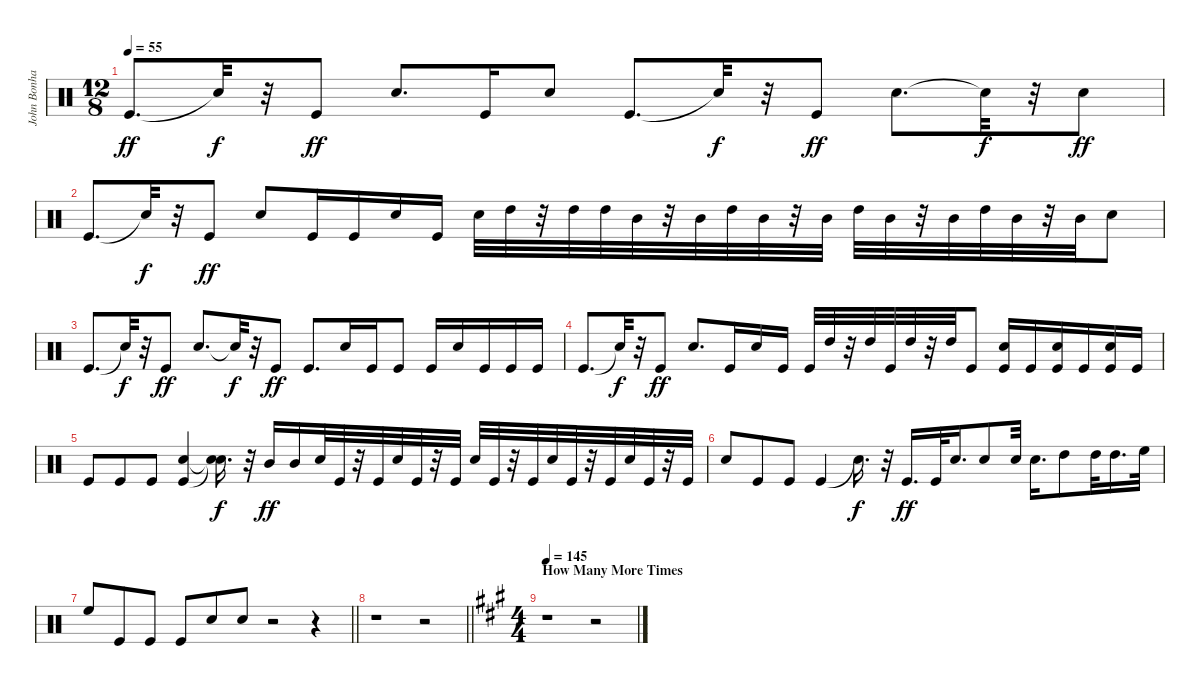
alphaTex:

\track ("John Bonham - Drums" "John Bonha") {instrument percussion}
\staff {score}
\articulation defaults
\ts (12 8)
\tempo 55
\clef neutral
\ks c "Kick (hit)".8{d dy ff} "Snare (hit)"{t}.32{dy f}
r.32 "Kick (hit)".8{dy ff} "Snare (hit) 2".8{d} "Kick (hit)".16 "Snare (hit) 2".8 "Kick (hit)".8{d} "Snare (hit)"{t}.32{dy f} r.32 "Kick (hit)".8{dy ff} "Snare (hit) 2".8{d} "Snare (hit)"{t}.32{dy f} r.32 "Snare (hit) 2".8{dy ff} |
"Kick (hit)".8{d} "Snare (hit)"{t}.32{dy f} r.32 "Kick (hit)".8{dy ff} "Snare (hit) 2".8 "Kick (hit)".16 "Kick (hit)".16 "Snare (hit) 2".16 "Kick (hit)".16 "Snare (hit) 2".32 "High Tom (hit)".32 r.32 "High Tom (hit)".32 "High Tom (hit)".32 "Mid Tom (hit)".32 r.32 "Mid Tom (hit)".32 "High Tom (hit)".32 "Mid Tom (hit)".32 r.32 "Mid Tom (hit)".32 "High Tom (hit)".32 "Mid Tom (hit)".32 r.32 "Mid Tom (hit)".32 "High Tom (hit)".32 "Mid Tom (hit)".32 r.32 "Mid Tom (hit)".32 "Snare (hit) 2".8 |
"Kick (hit)".8{d} "Snare (hit)"{t}.32{dy f} r.32 "Kick (hit)".8{dy ff} "Snare (hit) 2".8{d} "Snare (hit)"{t}.32{dy f} r.32 "Kick (hit)".8{dy ff} "Kick (hit)".8{d} "Snare (hit) 2".16 "Kick (hit)".16 "Kick (hit)".8 "Kick (hit)".16 "Snare (hit) 2".16 "Kick (hit)".16 "Kick (hit)".16 "Kick (hit)".16 |
"Kick (hit)".8{d} "Snare (hit)"{t}.32{dy f} r.32 "Kick (hit)".8{dy ff} "Snare (hit) 2".8{d} "Kick (hit)".16 "Snare (hit) 2".16 "Kick (hit)".16 "Kick (hit)".32 "High Tom (hit)".32 r.32 "High Tom (hit)".32 "Kick (hit)".32 "High Tom (hit)".32 r.32 "High Tom (hit)".32 "Kick (hit)".8 ("Kick (hit)" "Snare (hit) 2").16 "Kick (hit)".16 ("Kick (hit)" "Snare (hit) 2").16 "Kick (hit)".16 ("Kick (hit)" "Snare (hit) 2").16 "Kick (hit)".16 |
"Kick (hit)".8 "Kick (hit)".8 "Kick (hit)".8 ("Kick (hit)" "Snare (hit) 2").4 ("Snare (hit)"{t} "Snare (hit)"{t}).16{d dy f} r.32 "Mid Tom (hit)".16{dy ff} "Mid Tom (hit)".16 "Snare (hit) 2".32 "Kick (hit)".32 r.32 "Kick (hit)".32 "Snare (hit) 2".32 "Kick (hit)".32 r.32 "Kick (hit)".32 "Snare (hit) 2".32 "Kick (hit)".32 r.32 "Kick (hit)".32 "Snare (hit) 2".32 "Kick (hit)".32 r.32 "Kick (hit)".32 "Snare (hit) 2".32 "Kick (hit)".32 r.32 "Kick (hit)".32 |
"Snare (hit) 2".8 "Kick (hit)".8 "Kick (hit)".8 "Kick (hit)".4 "Snare (hit)"{t}.16{d dy f} r.32 "Kick (hit)".16{d dy ff} "Kick (hit)".32 "Snare (hit) 2".16{d} "Snare (hit) 2".8 "Snare (hit) 2".32 "Snare (hit) 2".16{d} "High Tom (hit)".8 "High Tom (hit)".32 "High Tom (hit)".16{d} "High Floor Tom (hit)".32 |
\barLineRight lightlight "High Floor Tom (hit)".8 "Kick (hit)".8 "Kick (hit)".8 "Kick (hit)".8 "Snare (hit) 2".8 "Snare (hit) 2".8
r.2 r.4 |
\barLineRight lightlight
r.1 r.2 |
\ts (4 4)
\section ("" "How Many More Times")
\tempo 145
\ks a
r.1 r.2
